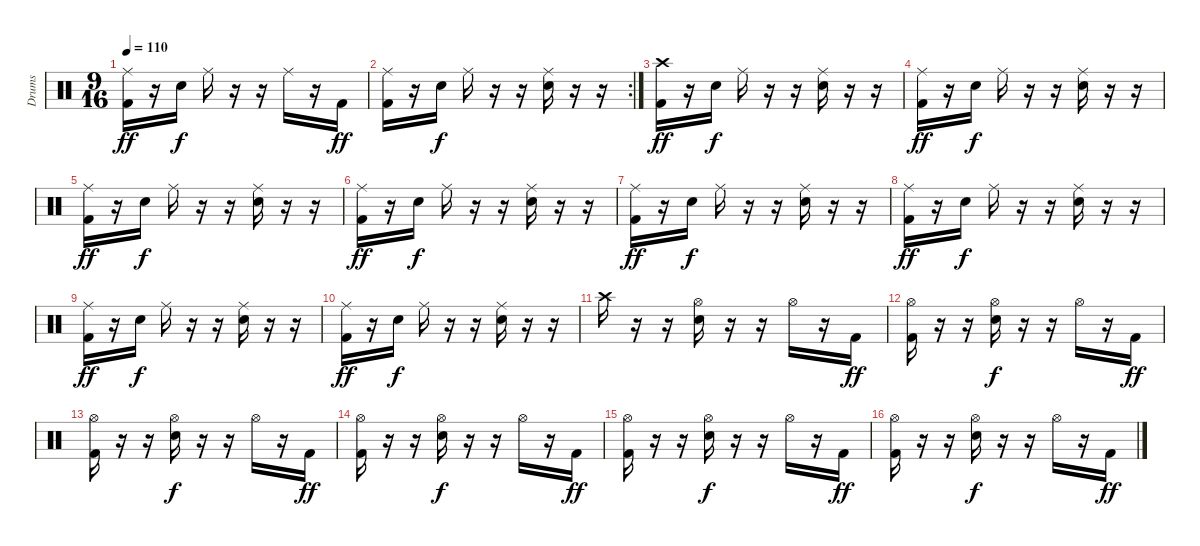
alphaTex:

\track ("Drums" "Drums") {instrument percussion}
\staff {score}
\articulation defaults
\ts (9 16)
\tempo 110
\clef neutral
\ks c
("Ride (middle)" "Kick (hit) 2").16{dy ff} r.16 "Snare (hit) 2".16{dy f} "Ride (middle)".16 r.16 r.16 "Ride (middle)".16 r.16 "Kick (hit) 2".16{dy ff} |
\rc 2
("Ride (middle)" "Kick (hit) 2").16 r.16 "Snare (hit) 2".16{dy f} "Ride (middle)".16 r.16 r.16 ("Ride (middle)" "Snare (hit) 2").16 r.16 r.16 |
("Crash high (hit)" "Kick (hit) 2").16{dy ff} r.16 "Snare (hit) 2".16{dy f} "Ride (middle)".16 r.16 r.16 ("Ride (middle)" "Snare (hit) 2").16 r.16 r.16 |
("Ride (middle)" "Kick (hit) 2").16{dy ff} r.16 "Snare (hit) 2".16{dy f} "Ride (middle)".16 r.16 r.16 ("Ride (middle)" "Snare (hit) 2").16 r.16 r.16 |
("Ride (middle)" "Kick (hit) 2").16{dy ff} r.16 "Snare (hit) 2".16{dy f} "Ride (middle)".16 r.16 r.16 ("Ride (middle)" "Snare (hit) 2").16 r.16 r.16 |
("Ride (middle)" "Kick (hit) 2").16{dy ff} r.16 "Snare (hit) 2".16{dy f} "Ride (middle)".16 r.16 r.16 ("Ride (middle)" "Snare (hit) 2").16 r.16 r.16 |
("Ride (middle)" "Kick (hit) 2").16{dy ff} r.16 "Snare (hit) 2".16{dy f} "Ride (middle)".16 r.16 r.16 ("Ride (middle)" "Snare (hit) 2").16 r.16 r.16 |
("Ride (middle)" "Kick (hit) 2").16{dy ff} r.16 "Snare (hit) 2".16{dy f} "Ride (middle)".16 r.16 r.16 ("Ride (middle)" "Snare (hit) 2").16 r.16 r.16 |
("Ride (middle)" "Kick (hit) 2").16{dy ff} r.16 "Snare (hit) 2".16{dy f} "Ride (middle)".16 r.16 r.16 ("Ride (middle)" "Snare (hit) 2").16 r.16 r.16 |
("Ride (middle)" "Kick (hit) 2").16{dy ff} r.16 "Snare (hit) 2".16{dy f} "Ride (middle)".16 r.16 r.16 ("Ride (middle)" "Snare (hit) 2").16 r.16 r.16 |
"Crash high (hit)".16 r.16 r.16 ("Hi-Hat (open)" "Snare (hit) 2").16 r.16 r.16 "Hi-Hat (open)".16 r.16 "Kick (hit) 2".16{dy ff} |
("Hi-Hat (open)" "Kick (hit) 2").16 r.16 r.16 ("Hi-Hat (open)" "Snare (hit) 2").16{dy f} r.16 r.16 "Hi-Hat (open)".16 r.16 "Kick (hit) 2".16{dy ff} |
("Hi-Hat (open)" "Kick (hit) 2").16 r.16 r.16 ("Hi-Hat (open)" "Snare (hit) 2").16{dy f} r.16 r.16 "Hi-Hat (open)".16 r.16 "Kick (hit) 2".16{dy ff} |
("Hi-Hat (open)" "Kick (hit) 2").16 r.16 r.16 ("Hi-Hat (open)" "Snare (hit) 2").16{dy f} r.16 r.16 "Hi-Hat (open)".16 r.16 "Kick (hit) 2".16{dy ff} |
("Hi-Hat (open)" "Kick (hit) 2").16 r.16 r.16 ("Hi-Hat (open)" "Snare (hit) 2").16{dy f} r.16 r.16 "Hi-Hat (open)".16 r.16 "Kick (hit) 2".16{dy ff} |
("Hi-Hat (open)" "Kick (hit) 2").16 r.16 r.16 ("Hi-Hat (open)" "Snare (hit) 2").16{dy f} r.16 r.16 "Hi-Hat (open)".16 r.16 "Kick (hit) 2".16{dy ff}
